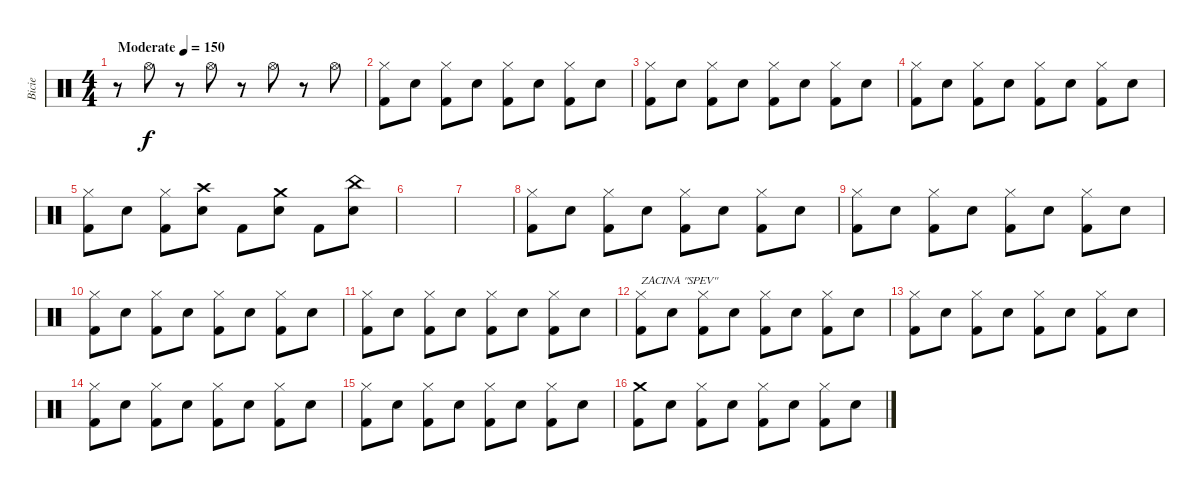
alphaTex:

\track ("Bicie" "Bicie") {instrument percussion}
\staff {score}
\articulation defaults
\ts (4 4)
\tempo (150 "Moderate")
\clef neutral
\ks c
r.8{dy f} "Hi-Hat (open)".8 r.8 "Hi-Hat (open)".8 r.8 "Hi-Hat (open)".8 r.8 "Hi-Hat (open)".8 |
("Hi-Hat (closed)" "Kick (hit) 2").8 "Snare (hit) 2".8 ("Hi-Hat (closed)" "Kick (hit) 2").8 "Snare (hit) 2".8 ("Hi-Hat (closed)" "Kick (hit) 2").8 "Snare (hit) 2".8 ("Hi-Hat (closed)" "Kick (hit) 2").8 "Snare (hit) 2".8 |
("Hi-Hat (closed)" "Kick (hit) 2").8 "Snare (hit) 2".8 ("Hi-Hat (closed)" "Kick (hit) 2").8 "Snare (hit) 2".8 ("Hi-Hat (closed)" "Kick (hit) 2").8 "Snare (hit) 2".8 ("Hi-Hat (closed)" "Kick (hit) 2").8 "Snare (hit) 2".8 |
("Hi-Hat (closed)" "Kick (hit) 2").8 "Snare (hit) 2".8 ("Hi-Hat (closed)" "Kick (hit) 2").8 "Snare (hit) 2".8 ("Hi-Hat (closed)" "Kick (hit) 2").8 "Snare (hit) 2".8 ("Hi-Hat (closed)" "Kick (hit) 2").8 "Snare (hit) 2".8 |
("Hi-Hat (closed)" "Kick (hit) 2").8 "Snare (hit) 2".8 ("Hi-Hat (closed)" "Kick (hit) 2").8 ("Crash high (hit)" "Snare (hit) 2").8 "Kick (hit) 2".8 ("Crash medium (hit)" "Snare (hit) 2").8 "Kick (hit) 2".8 ("China (hit)" "Snare (hit) 2").8 |
|
|
("Hi-Hat (closed)" "Kick (hit) 2").8 "Snare (hit) 2".8 ("Hi-Hat (closed)" "Kick (hit) 2").8 "Snare (hit) 2".8 ("Hi-Hat (closed)" "Kick (hit) 2").8 "Snare (hit) 2".8 ("Hi-Hat (closed)" "Kick (hit) 2").8 "Snare (hit) 2".8 |
("Hi-Hat (closed)" "Kick (hit) 2").8 "Snare (hit) 2".8 ("Hi-Hat (closed)" "Kick (hit) 2").8 "Snare (hit) 2".8 ("Hi-Hat (closed)" "Kick (hit) 2").8 "Snare (hit) 2".8 ("Hi-Hat (closed)" "Kick (hit) 2").8 "Snare (hit) 2".8 |
("Hi-Hat (closed)" "Kick (hit) 2").8 "Snare (hit) 2".8 ("Hi-Hat (closed)" "Kick (hit) 2").8 "Snare (hit) 2".8 ("Hi-Hat (closed)" "Kick (hit) 2").8 "Snare (hit) 2".8 ("Hi-Hat (closed)" "Kick (hit) 2").8 "Snare (hit) 2".8 |
("Hi-Hat (closed)" "Kick (hit) 2").8 "Snare (hit) 2".8 ("Hi-Hat (closed)" "Kick (hit) 2").8 "Snare (hit) 2".8 ("Hi-Hat (closed)" "Kick (hit) 2").8 "Snare (hit) 2".8 ("Hi-Hat (closed)" "Kick (hit) 2").8 "Snare (hit) 2".8 |
("Hi-Hat (closed)" "Kick (hit) 2").8{txt "ZACINA \"SPEV\""} "Snare (hit) 2".8 ("Hi-Hat (closed)" "Kick (hit) 2").8 "Snare (hit) 2".8 ("Hi-Hat (closed)" "Kick (hit) 2").8 "Snare (hit) 2".8 ("Hi-Hat (closed)" "Kick (hit) 2").8 "Snare (hit) 2".8 |
("Hi-Hat (closed)" "Kick (hit) 2").8 "Snare (hit) 2".8 ("Hi-Hat (closed)" "Kick (hit) 2").8 "Snare (hit) 2".8 ("Hi-Hat (closed)" "Kick (hit) 2").8 "Snare (hit) 2".8 ("Hi-Hat (closed)" "Kick (hit) 2").8 "Snare (hit) 2".8 |
("Hi-Hat (closed)" "Kick (hit) 2").8 "Snare (hit) 2".8 ("Hi-Hat (closed)" "Kick (hit) 2").8 "Snare (hit) 2".8 ("Hi-Hat (closed)" "Kick (hit) 2").8 "Snare (hit) 2".8 ("Hi-Hat (closed)" "Kick (hit) 2").8 "Snare (hit) 2".8 |
("Hi-Hat (closed)" "Kick (hit) 2").8 "Snare (hit) 2".8 ("Hi-Hat (closed)" "Kick (hit) 2").8 "Snare (hit) 2".8 ("Hi-Hat (closed)" "Kick (hit) 2").8 "Snare (hit) 2".8 ("Hi-Hat (closed)" "Kick (hit) 2").8 "Snare (hit) 2".8 |
("Crash medium (hit)" "Kick (hit) 2").8 "Snare (hit) 2".8 ("Hi-Hat (closed)" "Kick (hit) 2").8 "Snare (hit) 2".8 ("Hi-Hat (closed)" "Kick (hit) 2").8 "Snare (hit) 2".8 ("Hi-Hat (closed)" "Kick (hit) 2").8 "Snare (hit) 2".8
